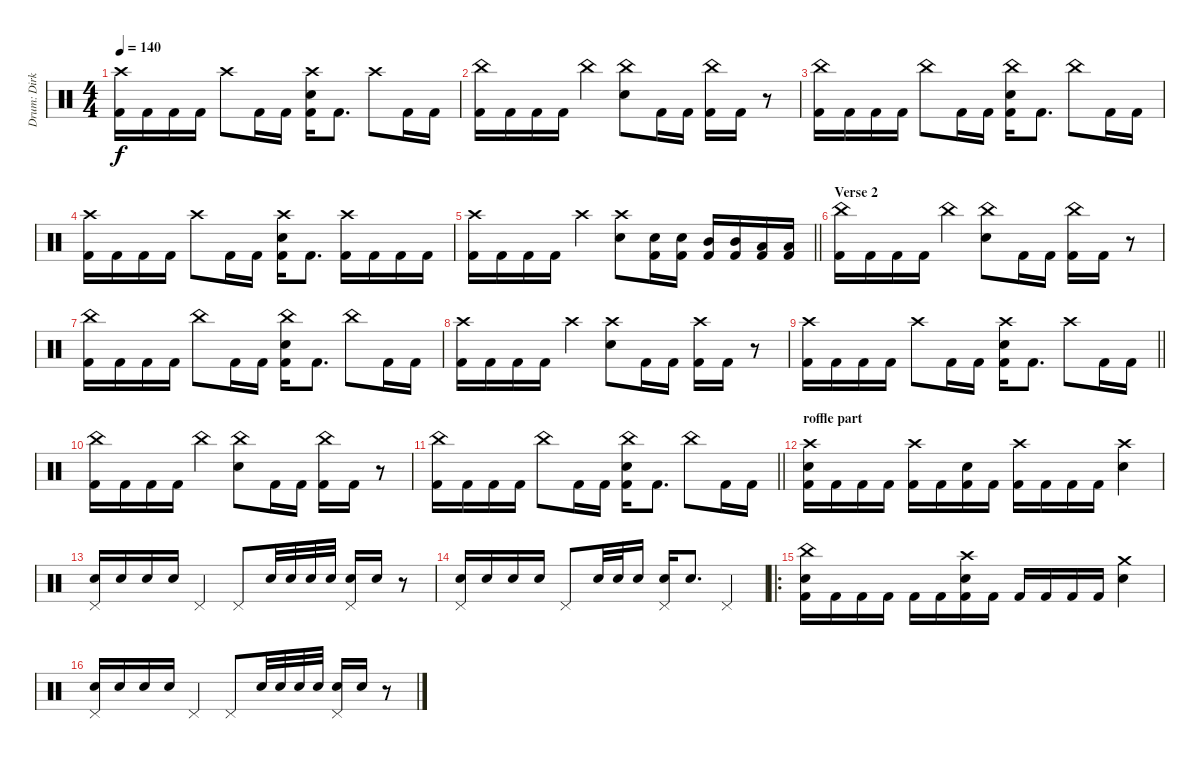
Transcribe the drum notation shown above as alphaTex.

\track ("Drum: Dirk" "Drum: Dirk") {instrument percussion}
\staff {score}
\articulation defaults
\ts (4 4)
\tempo 140
\clef neutral
\ks c
("Crash high (hit)" "Kick (hit) 2").16{dy f} "Kick (hit) 2".16 "Kick (hit) 2".16 "Kick (hit) 2".16 "Crash high (hit)".8 "Kick (hit) 2".16 "Kick (hit) 2".16 ("Crash high (hit)" "Electric Snare (hit)" "Kick (hit) 2").16 "Kick (hit) 2".8{d} "Crash high (hit)".8 "Kick (hit) 2".16 "Kick (hit) 2".16 |
("China (hit)" "Kick (hit) 2").16 "Kick (hit) 2".16 "Kick (hit) 2".16 "Kick (hit) 2".16 "China (hit)".4 ("China (hit)" "Electric Snare (hit)").8 "Kick (hit) 2".16 "Kick (hit) 2".16 ("China (hit)" "Kick (hit) 2").16 "Kick (hit) 2".16 r.8 |
("China (hit)" "Kick (hit) 2").16 "Kick (hit) 2".16 "Kick (hit) 2".16 "Kick (hit) 2".16 "China (hit)".8 "Kick (hit) 2".16 "Kick (hit) 2".16 ("China (hit)" "Electric Snare (hit)" "Kick (hit) 2").16 "Kick (hit) 2".8{d} "China (hit)".8 "Kick (hit) 2".16 "Kick (hit) 2".16 |
("Crash high (hit)" "Kick (hit) 2").16 "Kick (hit) 2".16 "Kick (hit) 2".16 "Kick (hit) 2".16 "Crash high (hit)".8 "Kick (hit) 2".16 "Kick (hit) 2".16 ("Crash high (hit)" "Electric Snare (hit)" "Kick (hit) 2").16 "Kick (hit) 2".8{d} ("Crash high (hit)" "Kick (hit) 2").16 "Kick (hit) 2".16 "Kick (hit) 2".16 "Kick (hit) 2".16 |
\barLineRight lightlight
("Crash high (hit)" "Kick (hit) 2").16 "Kick (hit) 2".16 "Kick (hit) 2".16 "Kick (hit) 2".16 "Crash high (hit)".4 ("Crash high (hit)" "Electric Snare (hit)").8 ("Electric Snare (hit)" "Kick (hit) 2").16 ("Electric Snare (hit)" "Kick (hit) 2").16 ("Mid Tom (hit)" "Kick (hit) 2").16 ("Mid Tom (hit)" "Kick (hit) 2").16 ("Low Tom (hit)" "Kick (hit) 2").16 ("Low Tom (hit)" "Kick (hit) 2").16 |
\section ("" "Verse 2")
("China (hit)" "Kick (hit) 2").16 "Kick (hit) 2".16 "Kick (hit) 2".16 "Kick (hit) 2".16 "China (hit)".4 ("China (hit)" "Electric Snare (hit)").8 "Kick (hit) 2".16 "Kick (hit) 2".16 ("China (hit)" "Kick (hit) 2").16 "Kick (hit) 2".16 r.8 |
("China (hit)" "Kick (hit) 2").16 "Kick (hit) 2".16 "Kick (hit) 2".16 "Kick (hit) 2".16 "China (hit)".8 "Kick (hit) 2".16 "Kick (hit) 2".16 ("China (hit)" "Electric Snare (hit)" "Kick (hit) 2").16 "Kick (hit) 2".8{d} "China (hit)".8 "Kick (hit) 2".16 "Kick (hit) 2".16 |
("Crash high (hit)" "Kick (hit) 2").16 "Kick (hit) 2".16 "Kick (hit) 2".16 "Kick (hit) 2".16 "Crash high (hit)".4 ("Crash high (hit)" "Electric Snare (hit)").8 "Kick (hit) 2".16 "Kick (hit) 2".16 ("Crash high (hit)" "Kick (hit) 2").16 "Kick (hit) 2".16 r.8 |
\barLineRight lightlight
("Crash high (hit)" "Kick (hit) 2").16 "Kick (hit) 2".16 "Kick (hit) 2".16 "Kick (hit) 2".16 "Crash high (hit)".8 "Kick (hit) 2".16 "Kick (hit) 2".16 ("Crash high (hit)" "Electric Snare (hit)" "Kick (hit) 2").16 "Kick (hit) 2".8{d} "Crash high (hit)".8 "Kick (hit) 2".16 "Kick (hit) 2".16 |
("China (hit)" "Kick (hit) 2").16 "Kick (hit) 2".16 "Kick (hit) 2".16 "Kick (hit) 2".16 "China (hit)".4 ("China (hit)" "Electric Snare (hit)").8 "Kick (hit) 2".16 "Kick (hit) 2".16 ("China (hit)" "Kick (hit) 2").16 "Kick (hit) 2".16 r.8 |
\barLineRight lightlight
("China (hit)" "Kick (hit) 2").16 "Kick (hit) 2".16 "Kick (hit) 2".16 "Kick (hit) 2".16 "China (hit)".8 "Kick (hit) 2".16 "Kick (hit) 2".16 ("China (hit)" "Electric Snare (hit)" "Kick (hit) 2").16 "Kick (hit) 2".8{d} "China (hit)".8 "Kick (hit) 2".16 "Kick (hit) 2".16 |
\section ("" "roffle part")
("Crash high (hit)" "Electric Snare (hit)" "Kick (hit) 2").16 "Kick (hit) 2".16 "Kick (hit) 2".16 "Kick (hit) 2".16 ("Crash high (hit)" "Kick (hit) 2").16 "Kick (hit) 2".16 ("Electric Snare (hit)" "Kick (hit) 2").16 "Kick (hit) 2".16 ("Crash high (hit)" "Kick (hit) 2").16 "Kick (hit) 2".16 "Kick (hit) 2".16 "Kick (hit) 2".16 ("Crash high (hit)" "Electric Snare (hit)").4 |
("Pedal Hi-Hat (hit)" "Electric Snare (hit)").16 "Electric Snare (hit)".16 "Electric Snare (hit)".16 "Electric Snare (hit)".16 "Pedal Hi-Hat (hit)".4 "Pedal Hi-Hat (hit)".8 "Electric Snare (hit)".32 "Electric Snare (hit)".32 "Electric Snare (hit)".32 "Electric Snare (hit)".32 ("Pedal Hi-Hat (hit)" "Electric Snare (hit)").16 "Electric Snare (hit)".16 r.8 |
("Pedal Hi-Hat (hit)" "Electric Snare (hit)").16 "Electric Snare (hit)".16 "Electric Snare (hit)".16 "Electric Snare (hit)".16 "Pedal Hi-Hat (hit)".8 "Electric Snare (hit)".32 "Electric Snare (hit)".32 "Electric Snare (hit)".16 ("Pedal Hi-Hat (hit)" "Electric Snare (hit)").16 "Electric Snare (hit)".8{d} "Pedal Hi-Hat (hit)".4 |
\ro
("China (hit)" "Electric Snare (hit)" "Kick (hit) 2").16 "Kick (hit) 2".16 "Kick (hit) 2".16 "Kick (hit) 2".16 "Kick (hit) 2".16 "Kick (hit) 2".16 ("Crash high (hit)" "Electric Snare (hit)" "Kick (hit) 2").16 "Kick (hit) 2".16 "Kick (hit) 2".16 "Kick (hit) 2".16 "Kick (hit) 2".16 "Kick (hit) 2".16 ("Crash medium (hit)" "Electric Snare (hit)").4 |
("Pedal Hi-Hat (hit)" "Electric Snare (hit)").16 "Electric Snare (hit)".16 "Electric Snare (hit)".16 "Electric Snare (hit)".16 "Pedal Hi-Hat (hit)".4 "Pedal Hi-Hat (hit)".8 "Electric Snare (hit)".32 "Electric Snare (hit)".32 "Electric Snare (hit)".32 "Electric Snare (hit)".32 ("Pedal Hi-Hat (hit)" "Electric Snare (hit)").16 "Electric Snare (hit)".16 r.8
